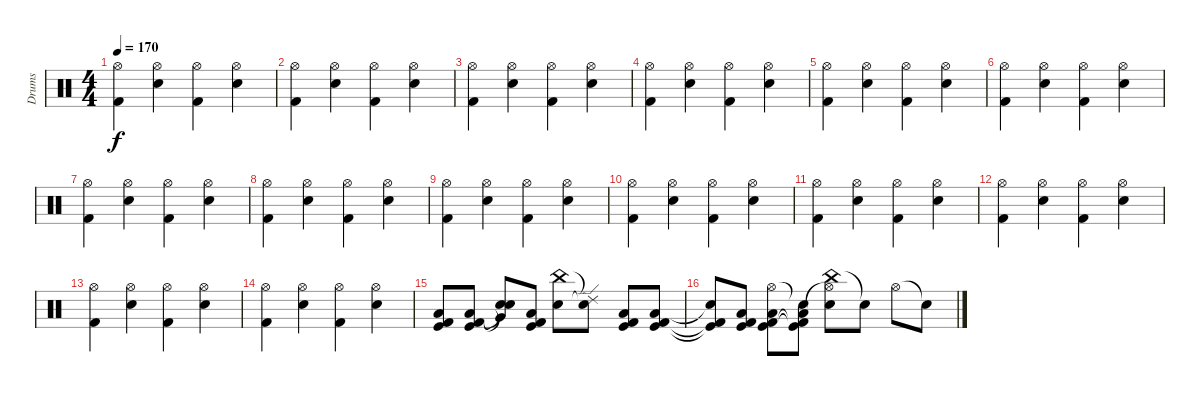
\track ("Drums" "Drums") {instrument percussion}
\staff {score}
\articulation defaults
\ts (4 4)
\tempo 170
\clef neutral
\ks c
("Hi-Hat (open)" "Kick (hit) 2").4{dy f} ("Hi-Hat (open)" "Snare (hit) 2").4 ("Hi-Hat (open)" "Kick (hit) 2").4 ("Hi-Hat (open)" "Snare (hit) 2").4 |
("Hi-Hat (open)" "Kick (hit) 2").4 ("Hi-Hat (open)" "Snare (hit) 2").4 ("Hi-Hat (open)" "Kick (hit) 2").4 ("Hi-Hat (open)" "Snare (hit) 2").4 |
("Hi-Hat (open)" "Kick (hit) 2").4 ("Hi-Hat (open)" "Snare (hit) 2").4 ("Hi-Hat (open)" "Kick (hit) 2").4 ("Hi-Hat (open)" "Snare (hit) 2").4 |
("Hi-Hat (open)" "Kick (hit) 2").4 ("Hi-Hat (open)" "Snare (hit) 2").4 ("Hi-Hat (open)" "Kick (hit) 2").4 ("Hi-Hat (open)" "Snare (hit) 2").4 |
("Hi-Hat (open)" "Kick (hit) 2").4 ("Hi-Hat (open)" "Snare (hit) 2").4 ("Hi-Hat (open)" "Kick (hit) 2").4 ("Hi-Hat (open)" "Snare (hit) 2").4 |
("Hi-Hat (open)" "Kick (hit) 2").4 ("Hi-Hat (open)" "Snare (hit) 2").4 ("Hi-Hat (open)" "Kick (hit) 2").4 ("Hi-Hat (open)" "Snare (hit) 2").4 |
("Hi-Hat (open)" "Kick (hit) 2").4 ("Hi-Hat (open)" "Snare (hit) 2").4 ("Hi-Hat (open)" "Kick (hit) 2").4 ("Hi-Hat (open)" "Snare (hit) 2").4 |
("Hi-Hat (open)" "Kick (hit) 2").4 ("Hi-Hat (open)" "Snare (hit) 2").4 ("Hi-Hat (open)" "Kick (hit) 2").4 ("Hi-Hat (open)" "Snare (hit) 2").4 |
("Hi-Hat (open)" "Kick (hit) 2").4 ("Hi-Hat (open)" "Snare (hit) 2").4 ("Hi-Hat (open)" "Kick (hit) 2").4 ("Hi-Hat (open)" "Snare (hit) 2").4 |
("Hi-Hat (open)" "Kick (hit) 2").4 ("Hi-Hat (open)" "Snare (hit) 2").4 ("Hi-Hat (open)" "Kick (hit) 2").4 ("Hi-Hat (open)" "Snare (hit) 2").4 |
("Hi-Hat (open)" "Kick (hit) 2").4 ("Hi-Hat (open)" "Snare (hit) 2").4 ("Hi-Hat (open)" "Kick (hit) 2").4 ("Hi-Hat (open)" "Snare (hit) 2").4 |
("Hi-Hat (open)" "Kick (hit) 2").4 ("Hi-Hat (open)" "Snare (hit) 2").4 ("Hi-Hat (open)" "Kick (hit) 2").4 ("Hi-Hat (open)" "Snare (hit) 2").4 |
("Hi-Hat (open)" "Kick (hit) 2").4 ("Hi-Hat (open)" "Snare (hit) 2").4 ("Hi-Hat (open)" "Kick (hit) 2").4 ("Hi-Hat (open)" "Snare (hit) 2").4 |
("Hi-Hat (open)" "Kick (hit) 2").4 ("Hi-Hat (open)" "Snare (hit) 2").4 ("Hi-Hat (open)" "Kick (hit) 2").4 ("Hi-Hat (open)" "Snare (hit) 2").4 |
("Low Floor Tom (hit)" "Kick (hit) 2" "Kick (hit)").8{volume 15} ("Low Floor Tom (hit)" "Kick (hit) 2" "Kick (hit)").8 ("Very Low Tom (hit)"{t} "Snare (hit)"{t} "Snare (hit)"{t}).8 ("Low Floor Tom (hit)" "Kick (hit) 2" "Kick (hit)").8 ("China (hit)" "Electric Snare (hit)").8 ("Ride (edge) 2"{t} "Snare (hit)"{t}).8 ("Low Floor Tom (hit)" "Kick (hit) 2" "Kick (hit)").8 ("Low Floor Tom (hit)" "Kick (hit) 2" "Kick (hit)").8 |
("Electric Snare (hit)"{t} "Kick (hit) 2"{t} "Kick (hit)"{t}).8 ("Low Floor Tom (hit)" "Kick (hit) 2" "Kick (hit)").8 ("Hi-Hat (open)" "Low Floor Tom (hit)" "Kick (hit) 2" "Kick (hit)").8 ("Snare (hit)"{t} "Low Floor Tom (hit)" "Kick (hit) 2"{t} "Kick (hit)"{t}).8 ("China (hit)" "Hi-Hat (open)"{t} "Electric Snare (hit)").8 "Snare (hit)"{t}.8 "Hi-Hat (open)".8 "Snare (hit)"{t}.8
